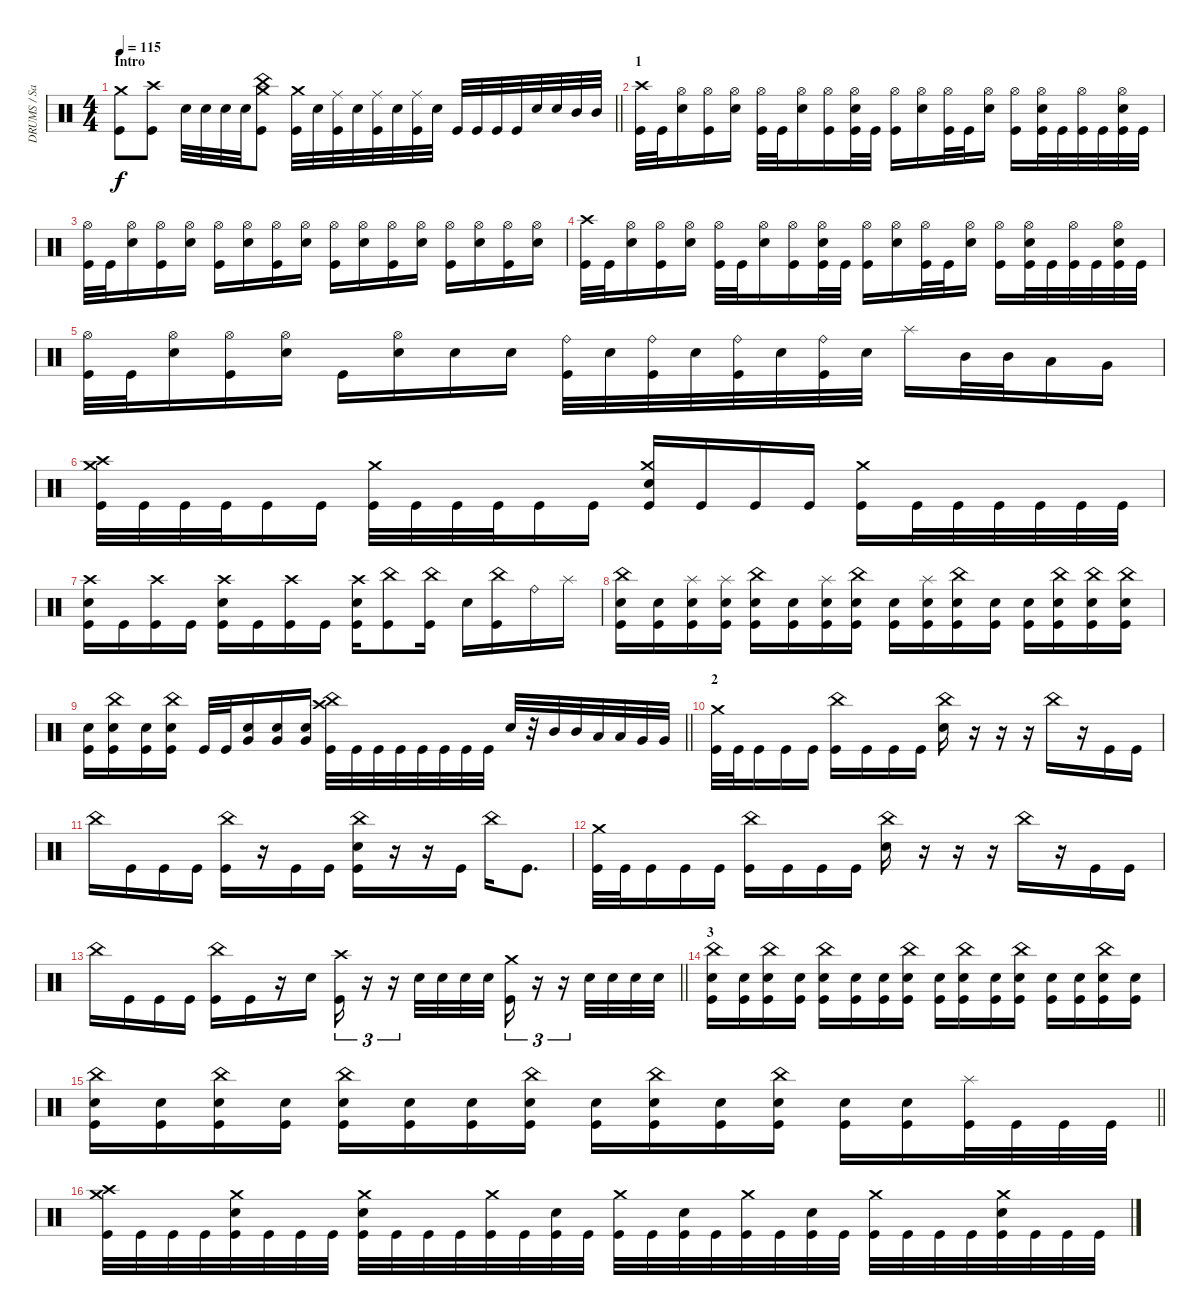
\track ("DRUMS / Sasha" "DRUMS / Sa") {instrument percussion}
\staff {score}
\articulation defaults
\ts (4 4)
\section ("" "Intro")
\tempo 115
\clef neutral
\barLineRight lightlight
\ks c
("Kick (hit)" "Crash medium (hit)").8{dy f} ("Kick (hit)" "Crash high (hit)").8 "Snare (hit) 2".32 "Snare (hit) 2".32 "Snare (hit) 2".32 "Snare (hit) 2".32 ("Kick (hit)" "China (hit)" "Crash medium (hit)").8 ("Kick (hit)" "Crash medium (hit)").32 "Snare (hit) 2".32 ("Kick (hit)" "Ride (middle)").32 "Snare (hit) 2".32 ("Kick (hit)" "Ride (middle)").32 "Snare (hit) 2".32 ("Kick (hit)" "Ride (middle)").32 "Snare (hit) 2".32 "Kick (hit)".32 "Kick (hit)".32 "Kick (hit)".32 "Kick (hit)".32 "Snare (hit) 2".32 "Snare (hit) 2".32 "Mid Tom (hit)".32 "Mid Tom (hit)".32 |
\section ("" "1")
("Crash high (hit)" "Kick (hit)").32 "Kick (hit)".32 ("Hi-Hat (open)" "Snare (hit) 2").16 ("Hi-Hat (open)" "Kick (hit)").16 ("Hi-Hat (open)" "Snare (hit) 2").16 ("Hi-Hat (open)" "Kick (hit)").32 "Kick (hit)".32 ("Hi-Hat (open)" "Snare (hit) 2").16 ("Hi-Hat (open)" "Kick (hit)").16 ("Hi-Hat (open)" "Snare (hit) 2" "Kick (hit)").32 "Kick (hit)".32 ("Hi-Hat (open)" "Kick (hit)").16 ("Hi-Hat (open)" "Snare (hit) 2").16 ("Hi-Hat (open)" "Kick (hit)").32 "Kick (hit)".32 ("Hi-Hat (open)" "Snare (hit) 2").16 ("Hi-Hat (open)" "Kick (hit)").16 ("Hi-Hat (open)" "Snare (hit) 2" "Kick (hit)").32 "Kick (hit)".32 ("Hi-Hat (open)" "Kick (hit)").32 "Kick (hit)".32 ("Hi-Hat (open)" "Snare (hit) 2" "Kick (hit)").32 "Kick (hit)".32 |
("Hi-Hat (open)" "Kick (hit)").32 "Kick (hit)".32 ("Hi-Hat (open)" "Snare (hit) 2").16 ("Hi-Hat (open)" "Kick (hit)").16 ("Hi-Hat (open)" "Snare (hit) 2").16 ("Hi-Hat (open)" "Kick (hit)").16 ("Hi-Hat (open)" "Snare (hit) 2").16 ("Hi-Hat (open)" "Kick (hit)").16 ("Hi-Hat (open)" "Snare (hit) 2").16 ("Hi-Hat (open)" "Kick (hit)").16 ("Hi-Hat (open)" "Snare (hit) 2").16 ("Hi-Hat (open)" "Kick (hit)").16 ("Hi-Hat (open)" "Snare (hit) 2").16 ("Hi-Hat (open)" "Kick (hit)").16 ("Hi-Hat (open)" "Snare (hit) 2").16 ("Hi-Hat (open)" "Kick (hit)").16 ("Hi-Hat (open)" "Snare (hit) 2").16 |
("Crash high (hit)" "Kick (hit)").32 "Kick (hit)".32 ("Hi-Hat (open)" "Snare (hit) 2").16 ("Hi-Hat (open)" "Kick (hit)").16 ("Hi-Hat (open)" "Snare (hit) 2").16 ("Hi-Hat (open)" "Kick (hit)").32 "Kick (hit)".32 ("Hi-Hat (open)" "Snare (hit) 2").16 ("Hi-Hat (open)" "Kick (hit)").16 ("Hi-Hat (open)" "Snare (hit) 2" "Kick (hit)").32 "Kick (hit)".32 ("Hi-Hat (open)" "Kick (hit)").16 ("Hi-Hat (open)" "Snare (hit) 2").16 ("Hi-Hat (open)" "Kick (hit)").32 "Kick (hit)".32 ("Hi-Hat (open)" "Snare (hit) 2").16 ("Hi-Hat (open)" "Kick (hit)").16 ("Hi-Hat (open)" "Snare (hit) 2" "Kick (hit)").32 "Kick (hit)".32 ("Hi-Hat (open)" "Kick (hit)").32 "Kick (hit)".32 ("Hi-Hat (open)" "Snare (hit) 2" "Kick (hit)").32 "Kick (hit)".32 |
("Hi-Hat (open)" "Kick (hit)").32 "Kick (hit)".32 ("Hi-Hat (open)" "Snare (hit) 2").16 ("Hi-Hat (open)" "Kick (hit)").16 ("Hi-Hat (open)" "Snare (hit) 2").16 "Kick (hit)".16 ("Hi-Hat (open)" "Snare (hit) 2").16 "Snare (hit) 2".16 "Snare (hit) 2".16 ("Ride (bell)" "Kick (hit)").32 "Snare (hit) 2".32 ("Ride (bell)" "Kick (hit)").32 "Snare (hit) 2".32 ("Ride (bell)" "Kick (hit)").32 "Snare (hit) 2".32 ("Ride (bell)" "Kick (hit)").32 "Snare (hit) 2".32 "Splash (hit)".16 "Mid Tom (hit)".32 "Mid Tom (hit)".32 "Low Tom (hit)".16 "Very Low Tom (hit)".16 |
("Crash high (hit)" "Crash medium (hit)" "Kick (hit)").32 "Kick (hit)".32 "Kick (hit)".32 "Kick (hit)".32 "Kick (hit)".16 "Kick (hit)".16 ("Crash medium (hit)" "Kick (hit)").32 "Kick (hit)".32 "Kick (hit)".32 "Kick (hit)".32 "Kick (hit)".16 "Kick (hit)".16 ("Crash medium (hit)" "Snare (hit) 2" "Kick (hit)").16 "Kick (hit)".16 "Kick (hit)".16 "Kick (hit)".16 ("Crash medium (hit)" "Kick (hit)").16 "Kick (hit)".32 "Kick (hit)".32 "Kick (hit)".32 "Kick (hit)".32 "Kick (hit)".32 "Kick (hit)".32 |
("Crash high (hit)" "Snare (hit) 2" "Kick (hit)").16 "Kick (hit)".16 ("Crash high (hit)" "Kick (hit)").16 "Kick (hit)".16 ("Crash high (hit)" "Snare (hit) 2" "Kick (hit)").16 "Kick (hit)".16 ("Crash high (hit)" "Kick (hit)").16 "Kick (hit)".16 ("Crash high (hit)" "Snare (hit) 2" "Kick (hit)").16 ("China (hit)" "Kick (hit)").8 ("China (hit)" "Kick (hit)").16 "Snare (hit) 2".16 ("China (hit)" "Kick (hit)").16 "Ride (bell)".16 "Splash (hit)".16 |
("China (hit)" "Snare (hit) 2" "Kick (hit)").16 ("Snare (hit) 2" "Kick (hit)").16 ("Splash (hit)" "Snare (hit) 2" "Kick (hit)").16 ("Splash (hit)" "Snare (hit) 2" "Kick (hit)").16 ("China (hit)" "Snare (hit) 2" "Kick (hit)").16 ("Snare (hit) 2" "Kick (hit)").16 ("Splash (hit)" "Snare (hit) 2" "Kick (hit)").16 ("China (hit)" "Snare (hit) 2" "Kick (hit)").16 ("Snare (hit) 2" "Kick (hit)").16 ("Splash (hit)" "Snare (hit) 2" "Kick (hit)").16 ("China (hit)" "Snare (hit) 2" "Kick (hit)").16 ("Snare (hit) 2" "Kick (hit)").16 ("Snare (hit) 2" "Kick (hit)").16 ("China (hit)" "Snare (hit) 2" "Kick (hit)").16 ("China (hit)" "Snare (hit) 2" "Kick (hit)").16 ("China (hit)" "Snare (hit) 2" "Kick (hit)").16 |
\barLineRight lightlight
("Snare (hit) 2" "Kick (hit)").16 ("China (hit)" "Snare (hit) 2" "Kick (hit)").16 ("Snare (hit) 2" "Kick (hit)").16 ("China (hit)" "Snare (hit) 2" "Kick (hit)").16 "Kick (hit)".32 "Kick (hit)".32 ("Snare (hit) 2" "Very Low Tom (hit)").16 ("Snare (hit) 2" "Very Low Tom (hit)").16 ("Snare (hit) 2" "Very Low Tom (hit)").16 ("Crash high (hit)" "China (hit)" "Kick (hit)").32 "Kick (hit)".32 "Kick (hit)".32 "Kick (hit)".32 "Kick (hit)".32 "Kick (hit)".32 "Kick (hit)".32 "Kick (hit)".32 "Snare (hit) 2".32 r.32 "Mid Tom (hit)".32 "Mid Tom (hit)".32 "Low Tom (hit)".32 "Low Tom (hit)".32 "Very Low Tom (hit)".32 "Very Low Tom (hit)".32 |
\section ("" "2")
("Crash medium (hit)" "Kick (hit)").32 "Kick (hit)".32 "Kick (hit)".16 "Kick (hit)".16 "Kick (hit)".16 ("China (hit)" "Kick (hit)").16 "Kick (hit)".16 "Kick (hit)".16 "Kick (hit)".16 ("China (hit)" "Snare (hit) 2").16 r.16 r.16 r.16 "China (hit)".16 r.16 "Kick (hit)".16 "Kick (hit)".16 |
"China (hit)".16 "Kick (hit)".16 "Kick (hit)".16 "Kick (hit)".16 ("China (hit)" "Kick (hit)").16 r.16 "Kick (hit)".16 "Kick (hit)".16 ("China (hit)" "Snare (hit) 2" "Kick (hit)").16 r.16 r.16 "Kick (hit)".16 "China (hit)".16 "Kick (hit)".8{d} |
("Crash medium (hit)" "Kick (hit)").32 "Kick (hit)".32 "Kick (hit)".16 "Kick (hit)".16 "Kick (hit)".16 ("China (hit)" "Kick (hit)").16 "Kick (hit)".16 "Kick (hit)".16 "Kick (hit)".16 ("China (hit)" "Snare (hit) 2").16 r.16 r.16 r.16 "China (hit)".16 r.16 "Kick (hit)".16 "Kick (hit)".16 |
\barLineRight lightlight "China (hit)".16 "Kick (hit)".16 "Kick (hit)".16 "Kick (hit)".16
("China (hit)" "Kick (hit)").16 "Kick (hit)".16 r.16 "Snare (hit) 2".16 ("Crash high (hit)" "Kick (hit)").16{tu (3 2)} r.16{tu (3 2)} r.16{tu (3 2)} "Snare (hit) 2".32 "Snare (hit) 2".32 "Snare (hit) 2".32 "Snare (hit) 2".32 ("Crash medium (hit)" "Kick (hit)").16{tu (3 2)} r.16{tu (3 2)} r.16{tu (3 2)} "Snare (hit) 2".32 "Snare (hit) 2".32 "Snare (hit) 2".32 "Snare (hit) 2".32 |
\section ("" "3")
("China (hit)" "Snare (hit) 2" "Kick (hit)").16 ("Snare (hit) 2" "Kick (hit)").16 ("China (hit)" "Snare (hit) 2" "Kick (hit)").16 ("Snare (hit) 2" "Kick (hit)").16 ("China (hit)" "Snare (hit) 2" "Kick (hit)").16 ("Snare (hit) 2" "Kick (hit)").16 ("Snare (hit) 2" "Kick (hit)").16 ("China (hit)" "Snare (hit) 2" "Kick (hit)").16 ("Snare (hit) 2" "Kick (hit)").16 ("China (hit)" "Snare (hit) 2" "Kick (hit)").16 ("Snare (hit) 2" "Kick (hit)").16 ("China (hit)" "Snare (hit) 2" "Kick (hit)").16 ("Snare (hit) 2" "Kick (hit)").16 ("Snare (hit) 2" "Kick (hit)").16 ("China (hit)" "Snare (hit) 2" "Kick (hit)").16 ("Snare (hit) 2" "Kick (hit)").16 |
\barLineRight lightlight
("China (hit)" "Snare (hit) 2" "Kick (hit)").16 ("Snare (hit) 2" "Kick (hit)").16 ("China (hit)" "Snare (hit) 2" "Kick (hit)").16 ("Snare (hit) 2" "Kick (hit)").16 ("China (hit)" "Snare (hit) 2" "Kick (hit)").16 ("Snare (hit) 2" "Kick (hit)").16 ("Snare (hit) 2" "Kick (hit)").16 ("China (hit)" "Snare (hit) 2" "Kick (hit)").16 ("Snare (hit) 2" "Kick (hit)").16 ("China (hit)" "Snare (hit) 2" "Kick (hit)").16 ("Snare (hit) 2" "Kick (hit)").16 ("China (hit)" "Snare (hit) 2" "Kick (hit)").16 ("Snare (hit) 2" "Kick (hit)").16 ("Snare (hit) 2" "Kick (hit)").16 ("Kick (hit)" "Splash (hit)").32 "Kick (hit)".32 "Kick (hit)".32 "Kick (hit)".32 |
("Kick (hit)" "Crash medium (hit)" "Crash high (hit)").32 "Kick (hit)".32 "Kick (hit)".32 "Kick (hit)".32 ("Kick (hit)" "Crash medium (hit)" "Snare (hit) 2").32 "Kick (hit)".32 "Kick (hit)".32 "Kick (hit)".32 ("Kick (hit)" "Crash medium (hit)" "Snare (hit) 2").32 "Kick (hit)".32 "Kick (hit)".32 "Kick (hit)".32 ("Kick (hit)" "Crash medium (hit)").32 "Kick (hit)".32 ("Kick (hit)" "Snare (hit) 2").32 "Kick (hit)".32 ("Kick (hit)" "Crash medium (hit)").32 "Kick (hit)".32 ("Kick (hit)" "Snare (hit) 2").32 "Kick (hit)".32 ("Kick (hit)" "Crash medium (hit)").32 "Kick (hit)".32 ("Kick (hit)" "Snare (hit) 2").32 "Kick (hit)".32 ("Kick (hit)" "Crash medium (hit)").32 "Kick (hit)".32 "Kick (hit)".32 "Kick (hit)".32 ("Kick (hit)" "Crash medium (hit)" "Snare (hit) 2").32 "Kick (hit)".32 "Kick (hit)".32 "Kick (hit)".32
